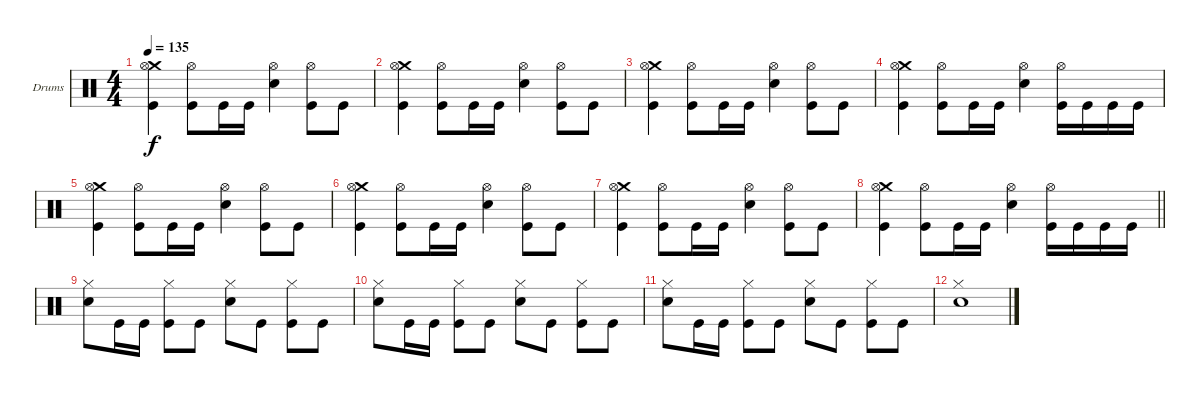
\defaultSystemsLayout 4
\bracketExtendMode groupsimilarinstruments
\firstSystemTrackNameOrientation horizontal
\otherSystemsTrackNameOrientation horizontal
\track ("Drumkit" "Drums") {instrument percussion}
\staff {score}
\articulation defaults
\ts (4 4)
\tempo 135
\clef neutral
\ks c
("Kick (hit)" "Crash medium (hit)" "Hi-Hat (open)").4{dy f} ("Kick (hit)" "Hi-Hat (open)").8 "Kick (hit)".16 "Kick (hit)".16 ("Snare (hit) 2" "Hi-Hat (open)").4 ("Kick (hit)" "Hi-Hat (open)").8 "Kick (hit)".8 |
("Kick (hit)" "Crash medium (hit)" "Hi-Hat (open)").4 ("Kick (hit)" "Hi-Hat (open)").8 "Kick (hit)".16 "Kick (hit)".16 ("Snare (hit) 2" "Hi-Hat (open)").4 ("Kick (hit)" "Hi-Hat (open)").8 "Kick (hit)".8 |
("Kick (hit)" "Crash medium (hit)" "Hi-Hat (open)").4 ("Kick (hit)" "Hi-Hat (open)").8 "Kick (hit)".16 "Kick (hit)".16 ("Snare (hit) 2" "Hi-Hat (open)").4 ("Kick (hit)" "Hi-Hat (open)").8 "Kick (hit)".8 |
("Kick (hit)" "Crash medium (hit)" "Hi-Hat (open)").4 ("Kick (hit)" "Hi-Hat (open)").8 "Kick (hit)".16 "Kick (hit)".16 ("Snare (hit) 2" "Hi-Hat (open)").4 ("Kick (hit)" "Hi-Hat (open)").16 "Kick (hit)".16 "Kick (hit)".16 "Kick (hit)".16 |
("Kick (hit)" "Crash medium (hit)" "Hi-Hat (open)").4 ("Kick (hit)" "Hi-Hat (open)").8 "Kick (hit)".16 "Kick (hit)".16 ("Snare (hit) 2" "Hi-Hat (open)").4 ("Kick (hit)" "Hi-Hat (open)").8 "Kick (hit)".8 |
("Kick (hit)" "Crash medium (hit)" "Hi-Hat (open)").4 ("Kick (hit)" "Hi-Hat (open)").8 "Kick (hit)".16 "Kick (hit)".16 ("Snare (hit) 2" "Hi-Hat (open)").4 ("Kick (hit)" "Hi-Hat (open)").8 "Kick (hit)".8 |
("Kick (hit)" "Crash medium (hit)" "Hi-Hat (open)").4 ("Kick (hit)" "Hi-Hat (open)").8 "Kick (hit)".16 "Kick (hit)".16 ("Snare (hit) 2" "Hi-Hat (open)").4 ("Kick (hit)" "Hi-Hat (open)").8 "Kick (hit)".8 |
\barLineRight lightlight
("Kick (hit)" "Crash medium (hit)" "Hi-Hat (open)").4 ("Kick (hit)" "Hi-Hat (open)").8 "Kick (hit)".16 "Kick (hit)".16 ("Snare (hit) 2" "Hi-Hat (open)").4 ("Kick (hit)" "Hi-Hat (open)").16 "Kick (hit)".16 "Kick (hit)".16 "Kick (hit)".16 |
("Snare (hit) 2" "Hi-Hat (closed)").8 "Kick (hit)".16 "Kick (hit)".16 ("Kick (hit)" "Hi-Hat (closed)").8 "Kick (hit)".8 ("Snare (hit) 2" "Hi-Hat (closed)").8 "Kick (hit)".8 ("Kick (hit)" "Hi-Hat (closed)").8 "Kick (hit)".8 |
("Snare (hit) 2" "Hi-Hat (closed)").8 "Kick (hit)".16 "Kick (hit)".16 ("Kick (hit)" "Hi-Hat (closed)").8 "Kick (hit)".8 ("Snare (hit) 2" "Hi-Hat (closed)").8 "Kick (hit)".8 ("Kick (hit)" "Hi-Hat (closed)").8 "Kick (hit)".8 |
("Snare (hit) 2" "Hi-Hat (closed)").8 "Kick (hit)".16 "Kick (hit)".16 ("Kick (hit)" "Hi-Hat (closed)").8 "Kick (hit)".8 ("Snare (hit) 2" "Hi-Hat (closed)").8 "Kick (hit)".8 ("Kick (hit)" "Hi-Hat (closed)").8 "Kick (hit)".8 |
("Snare (hit) 2" "Hi-Hat (closed)").1
